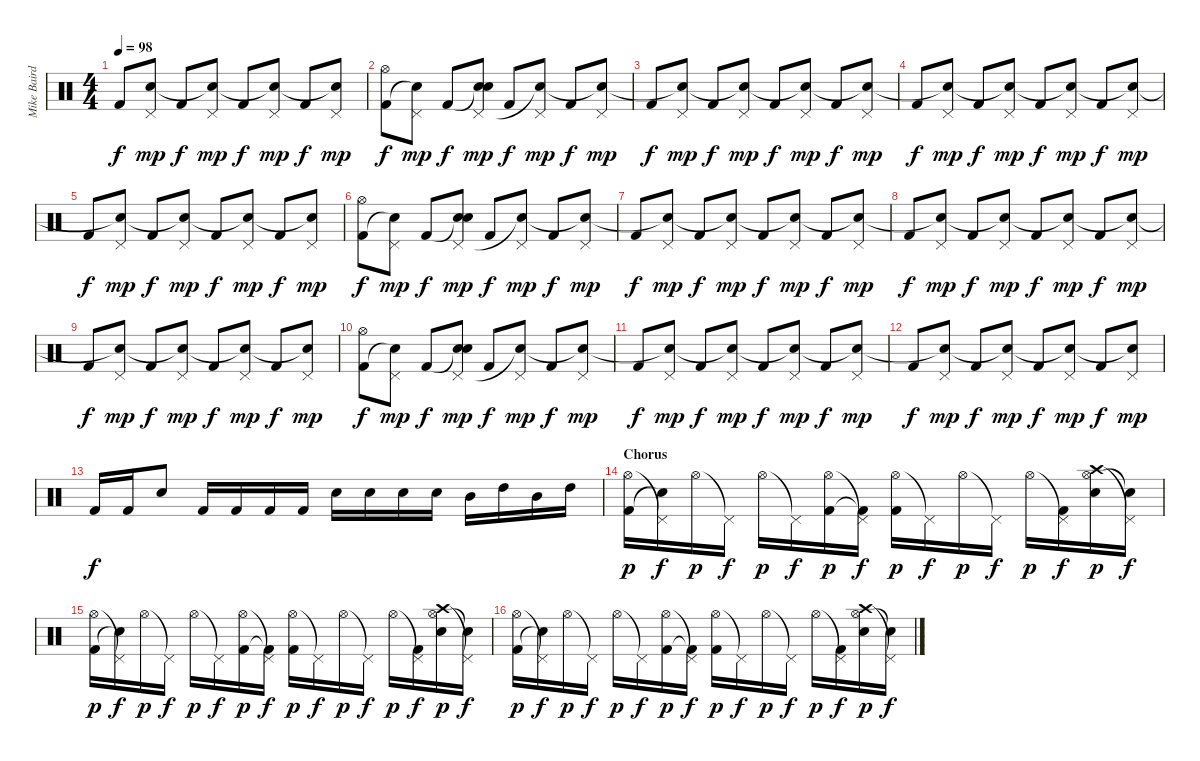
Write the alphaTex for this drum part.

\track ("Mike Baird [drums]" "Mike Baird") {instrument percussion}
\staff {score}
\articulation defaults
\ts (4 4)
\tempo 98
\clef neutral
\ks c "Kick (hit) 2".8{dy f}
("Pedal Hi-Hat (hit)" "Snare (hit)"{t}).8{dy mp} "Kick (hit) 2".8{dy f} ("Pedal Hi-Hat (hit)" "Snare (hit)"{t}).8{dy mp} "Kick (hit) 2".8{dy f} ("Pedal Hi-Hat (hit)" "Snare (hit)"{t}).8{dy mp} "Kick (hit) 2".8{dy f} ("Pedal Hi-Hat (hit)" "Snare (hit)"{t}).8{dy mp} |
("Hi-Hat (open)" "Kick (hit) 2").8{dy f} ("Pedal Hi-Hat (hit)" "Snare (hit)"{t}).8{dy mp} "Kick (hit) 2".8{dy f} ("Snare (hit)"{t} "Pedal Hi-Hat (hit)" "Snare (hit)").8{dy mp} "Kick (hit) 2".8{dy f} ("Pedal Hi-Hat (hit)" "Snare (hit)"{t}).8{dy mp} "Kick (hit) 2".8{dy f} ("Pedal Hi-Hat (hit)" "Snare (hit)"{t}).8{dy mp} |
"Kick (hit) 2".8{dy f} ("Pedal Hi-Hat (hit)" "Snare (hit)"{t}).8{dy mp} "Kick (hit) 2".8{dy f} ("Pedal Hi-Hat (hit)" "Snare (hit)"{t}).8{dy mp} "Kick (hit) 2".8{dy f} ("Pedal Hi-Hat (hit)" "Snare (hit)"{t}).8{dy mp} "Kick (hit) 2".8{dy f} ("Pedal Hi-Hat (hit)" "Snare (hit)"{t}).8{dy mp} |
"Kick (hit) 2".8{dy f} ("Pedal Hi-Hat (hit)" "Snare (hit)"{t}).8{dy mp} "Kick (hit) 2".8{dy f} ("Pedal Hi-Hat (hit)" "Snare (hit)"{t}).8{dy mp} "Kick (hit) 2".8{dy f} ("Pedal Hi-Hat (hit)" "Snare (hit)"{t}).8{dy mp} "Kick (hit) 2".8{dy f} ("Pedal Hi-Hat (hit)" "Snare (hit)"{t}).8{dy mp} |
"Kick (hit) 2".8{dy f} ("Pedal Hi-Hat (hit)" "Snare (hit)"{t}).8{dy mp} "Kick (hit) 2".8{dy f} ("Pedal Hi-Hat (hit)" "Snare (hit)"{t}).8{dy mp} "Kick (hit) 2".8{dy f} ("Pedal Hi-Hat (hit)" "Snare (hit)"{t}).8{dy mp} "Kick (hit) 2".8{dy f} ("Pedal Hi-Hat (hit)" "Snare (hit)"{t}).8{dy mp} |
("Hi-Hat (open)" "Kick (hit) 2").8{dy f} ("Pedal Hi-Hat (hit)" "Snare (hit)"{t}).8{dy mp} "Kick (hit) 2".8{dy f} ("Snare (hit)"{t} "Pedal Hi-Hat (hit)" "Snare (hit)").8{dy mp} "Kick (hit) 2".8{dy f} ("Pedal Hi-Hat (hit)" "Snare (hit)"{t}).8{dy mp} "Kick (hit) 2".8{dy f} ("Pedal Hi-Hat (hit)" "Snare (hit)"{t}).8{dy mp} |
"Kick (hit) 2".8{dy f} ("Pedal Hi-Hat (hit)" "Snare (hit)"{t}).8{dy mp} "Kick (hit) 2".8{dy f} ("Pedal Hi-Hat (hit)" "Snare (hit)"{t}).8{dy mp} "Kick (hit) 2".8{dy f} ("Pedal Hi-Hat (hit)" "Snare (hit)"{t}).8{dy mp} "Kick (hit) 2".8{dy f} ("Pedal Hi-Hat (hit)" "Snare (hit)"{t}).8{dy mp} |
"Kick (hit) 2".8{dy f} ("Pedal Hi-Hat (hit)" "Snare (hit)"{t}).8{dy mp} "Kick (hit) 2".8{dy f} ("Pedal Hi-Hat (hit)" "Snare (hit)"{t}).8{dy mp} "Kick (hit) 2".8{dy f} ("Pedal Hi-Hat (hit)" "Snare (hit)"{t}).8{dy mp} "Kick (hit) 2".8{dy f} ("Pedal Hi-Hat (hit)" "Snare (hit)"{t}).8{dy mp} |
"Kick (hit) 2".8{dy f} ("Pedal Hi-Hat (hit)" "Snare (hit)"{t}).8{dy mp} "Kick (hit) 2".8{dy f} ("Pedal Hi-Hat (hit)" "Snare (hit)"{t}).8{dy mp} "Kick (hit) 2".8{dy f} ("Pedal Hi-Hat (hit)" "Snare (hit)"{t}).8{dy mp} "Kick (hit) 2".8{dy f} ("Pedal Hi-Hat (hit)" "Snare (hit)"{t}).8{dy mp} |
("Hi-Hat (open)" "Kick (hit) 2").8{dy f} ("Pedal Hi-Hat (hit)" "Snare (hit)"{t}).8{dy mp} "Kick (hit) 2".8{dy f} ("Snare (hit)"{t} "Pedal Hi-Hat (hit)" "Snare (hit)").8{dy mp} "Kick (hit) 2".8{dy f} ("Pedal Hi-Hat (hit)" "Snare (hit)"{t}).8{dy mp} "Kick (hit) 2".8{dy f} ("Pedal Hi-Hat (hit)" "Snare (hit)"{t}).8{dy mp} |
"Kick (hit) 2".8{dy f} ("Pedal Hi-Hat (hit)" "Snare (hit)"{t}).8{dy mp} "Kick (hit) 2".8{dy f} ("Pedal Hi-Hat (hit)" "Snare (hit)"{t}).8{dy mp} "Kick (hit) 2".8{dy f} ("Pedal Hi-Hat (hit)" "Snare (hit)"{t}).8{dy mp} "Kick (hit) 2".8{dy f} ("Pedal Hi-Hat (hit)" "Snare (hit)"{t}).8{dy mp} |
"Kick (hit) 2".8{dy f} ("Pedal Hi-Hat (hit)" "Snare (hit)"{t}).8{dy mp} "Kick (hit) 2".8{dy f} ("Pedal Hi-Hat (hit)" "Snare (hit)"{t}).8{dy mp} "Kick (hit) 2".8{dy f} ("Pedal Hi-Hat (hit)" "Snare (hit)"{t}).8{dy mp} "Kick (hit) 2".8{dy f} ("Pedal Hi-Hat (hit)" "Snare (hit)"{t}).8{dy mp} |
"Kick (hit) 2".16{dy f} "Kick (hit) 2".16 "Electric Snare (hit)".8 "Kick (hit) 2".16 "Kick (hit) 2".16 "Kick (hit) 2".16 "Kick (hit) 2".16 "Electric Snare (hit)".16 "Electric Snare (hit)".16 "Electric Snare (hit)".16 "Electric Snare (hit)".16 "Mid Tom (hit)".16 "High Tom (hit)".16 "Mid Tom (hit)".16 "High Tom (hit)".16 |
\section ("" "Chorus")
("Hi-Hat (open)" "Kick (hit) 2").16{dy p} ("Pedal Hi-Hat (hit)"{t} "Snare (hit)"{t}).16{dy f} "Hi-Hat (open)".16{dy p} "Pedal Hi-Hat (hit)"{t}.16{dy f} "Hi-Hat (open)".16{dy p} "Pedal Hi-Hat (hit)"{t}.16{dy f} ("Hi-Hat (open)" "Kick (hit) 2").16{dy p} ("Pedal Hi-Hat (hit)"{t} "Kick (hit) 2"{t}).16{dy f} ("Hi-Hat (open)" "Kick (hit) 2").16{dy p} "Pedal Hi-Hat (hit)"{t}.16{dy f} "Hi-Hat (open)".16{dy p} "Pedal Hi-Hat (hit)"{t}.16{dy f} "Hi-Hat (open)".16{dy p} ("Pedal Hi-Hat (hit)"{t} "Kick (hit) 2").16{dy f} ("Crash high (hit)" "Hi-Hat (open)" "Electric Snare (hit)").16{dy p} ("Pedal Hi-Hat (hit)"{t} "Snare (hit)"{t}).16{dy f} |
("Hi-Hat (open)" "Kick (hit) 2").16{dy p} ("Pedal Hi-Hat (hit)"{t} "Snare (hit)"{t}).16{dy f} "Hi-Hat (open)".16{dy p} "Pedal Hi-Hat (hit)"{t}.16{dy f} "Hi-Hat (open)".16{dy p} "Pedal Hi-Hat (hit)"{t}.16{dy f} ("Hi-Hat (open)" "Kick (hit) 2").16{dy p} ("Pedal Hi-Hat (hit)"{t} "Kick (hit) 2"{t}).16{dy f} ("Hi-Hat (open)" "Kick (hit) 2").16{dy p} "Pedal Hi-Hat (hit)"{t}.16{dy f} "Hi-Hat (open)".16{dy p} "Pedal Hi-Hat (hit)"{t}.16{dy f} "Hi-Hat (open)".16{dy p} ("Pedal Hi-Hat (hit)"{t} "Kick (hit) 2").16{dy f} ("Crash high (hit)" "Hi-Hat (open)" "Electric Snare (hit)").16{dy p} ("Pedal Hi-Hat (hit)"{t} "Snare (hit)"{t}).16{dy f} |
("Hi-Hat (open)" "Kick (hit) 2").16{dy p} ("Pedal Hi-Hat (hit)"{t} "Snare (hit)"{t}).16{dy f} "Hi-Hat (open)".16{dy p} "Pedal Hi-Hat (hit)"{t}.16{dy f} "Hi-Hat (open)".16{dy p} "Pedal Hi-Hat (hit)"{t}.16{dy f} ("Hi-Hat (open)" "Kick (hit) 2").16{dy p} ("Pedal Hi-Hat (hit)"{t} "Kick (hit) 2"{t}).16{dy f} ("Hi-Hat (open)" "Kick (hit) 2").16{dy p} "Pedal Hi-Hat (hit)"{t}.16{dy f} "Hi-Hat (open)".16{dy p} "Pedal Hi-Hat (hit)"{t}.16{dy f} "Hi-Hat (open)".16{dy p} ("Pedal Hi-Hat (hit)"{t} "Kick (hit) 2").16{dy f} ("Crash high (hit)" "Hi-Hat (open)" "Electric Snare (hit)").16{dy p} ("Pedal Hi-Hat (hit)"{t} "Snare (hit)"{t}).16{dy f}
